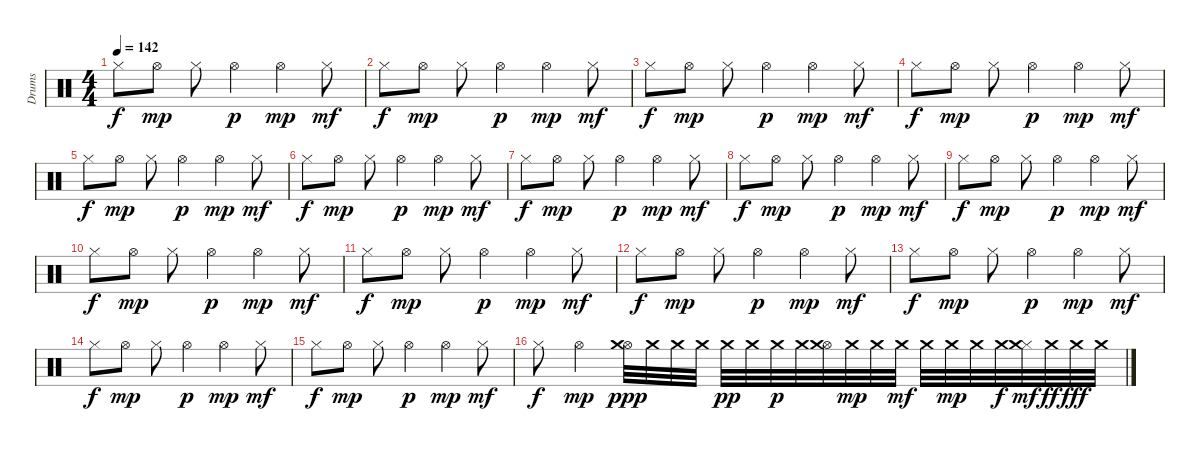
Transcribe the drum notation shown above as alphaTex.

\track ("Drums" "Drums") {instrument percussion}
\staff {score}
\articulation defaults
\ts (4 4)
\tempo 142
\clef neutral
\ks c "Hi-Hat (closed)".8{dy f} "Hi-Hat (open)".8{dy mp} "Hi-Hat (closed)".8 "Hi-Hat (open)".4{dy p} "Hi-Hat (open)".4{dy mp} "Hi-Hat (closed)".8{dy mf}
|
"Hi-Hat (closed)".8{dy f} "Hi-Hat (open)".8{dy mp} "Hi-Hat (closed)".8 "Hi-Hat (open)".4{dy p} "Hi-Hat (open)".4{dy mp} "Hi-Hat (closed)".8{dy mf} |
"Hi-Hat (closed)".8{dy f} "Hi-Hat (open)".8{dy mp} "Hi-Hat (closed)".8 "Hi-Hat (open)".4{dy p} "Hi-Hat (open)".4{dy mp} "Hi-Hat (closed)".8{dy mf} |
"Hi-Hat (closed)".8{dy f} "Hi-Hat (open)".8{dy mp} "Hi-Hat (closed)".8 "Hi-Hat (open)".4{dy p} "Hi-Hat (open)".4{dy mp} "Hi-Hat (closed)".8{dy mf} |
"Hi-Hat (closed)".8{dy f} "Hi-Hat (open)".8{dy mp} "Hi-Hat (closed)".8 "Hi-Hat (open)".4{dy p} "Hi-Hat (open)".4{dy mp} "Hi-Hat (closed)".8{dy mf} |
"Hi-Hat (closed)".8{dy f} "Hi-Hat (open)".8{dy mp} "Hi-Hat (closed)".8 "Hi-Hat (open)".4{dy p} "Hi-Hat (open)".4{dy mp} "Hi-Hat (closed)".8{dy mf} |
"Hi-Hat (closed)".8{dy f} "Hi-Hat (open)".8{dy mp} "Hi-Hat (closed)".8 "Hi-Hat (open)".4{dy p} "Hi-Hat (open)".4{dy mp} "Hi-Hat (closed)".8{dy mf} |
"Hi-Hat (closed)".8{dy f} "Hi-Hat (open)".8{dy mp} "Hi-Hat (closed)".8 "Hi-Hat (open)".4{dy p} "Hi-Hat (open)".4{dy mp} "Hi-Hat (closed)".8{dy mf} |
"Hi-Hat (closed)".8{dy f} "Hi-Hat (open)".8{dy mp} "Hi-Hat (closed)".8 "Hi-Hat (open)".4{dy p} "Hi-Hat (open)".4{dy mp} "Hi-Hat (closed)".8{dy mf} |
"Hi-Hat (closed)".8{dy f} "Hi-Hat (open)".8{dy mp} "Hi-Hat (closed)".8 "Hi-Hat (open)".4{dy p} "Hi-Hat (open)".4{dy mp} "Hi-Hat (closed)".8{dy mf} |
"Hi-Hat (closed)".8{dy f} "Hi-Hat (open)".8{dy mp} "Hi-Hat (closed)".8 "Hi-Hat (open)".4{dy p} "Hi-Hat (open)".4{dy mp} "Hi-Hat (closed)".8{dy mf} |
"Hi-Hat (closed)".8{dy f} "Hi-Hat (open)".8{dy mp} "Hi-Hat (closed)".8 "Hi-Hat (open)".4{dy p} "Hi-Hat (open)".4{dy mp} "Hi-Hat (closed)".8{dy mf} |
"Hi-Hat (closed)".8{dy f} "Hi-Hat (open)".8{dy mp} "Hi-Hat (closed)".8 "Hi-Hat (open)".4{dy p} "Hi-Hat (open)".4{dy mp} "Hi-Hat (closed)".8{dy mf} |
"Hi-Hat (closed)".8{dy f} "Hi-Hat (open)".8{dy mp} "Hi-Hat (closed)".8 "Hi-Hat (open)".4{dy p} "Hi-Hat (open)".4{dy mp} "Hi-Hat (closed)".8{dy mf} |
"Hi-Hat (closed)".8{dy f} "Hi-Hat (open)".8{dy mp} "Hi-Hat (closed)".8 "Hi-Hat (open)".4{dy p} "Hi-Hat (open)".4{dy mp} "Hi-Hat (closed)".8{dy mf} |
"Hi-Hat (closed)".8{dy f} "Hi-Hat (open)".4{dy mp} ("Hi-Hat (open)" "Crash medium (hit)").32{dy ppp} "Crash medium (hit)".32 "Crash medium (hit)".32 "Crash medium (hit)".32 "Crash medium (hit)".32{dy pp} "Crash medium (hit)".32 "Crash medium (hit)".32{dy p} "Crash medium (hit)".32 ("Hi-Hat (open)" "Crash medium (hit)").32 "Crash medium (hit)".32{dy mp} "Crash medium (hit)".32 "Crash medium (hit)".32{dy mf} "Crash medium (hit)".32 "Crash medium (hit)".32{dy mp} "Crash medium (hit)".32 "Crash medium (hit)".32{dy f} ("Hi-Hat (closed)" "Crash medium (hit)").32{dy mf} "Crash medium (hit)".32{dy ff} "Crash medium (hit)".32{dy fff} "Crash medium (hit)".32
